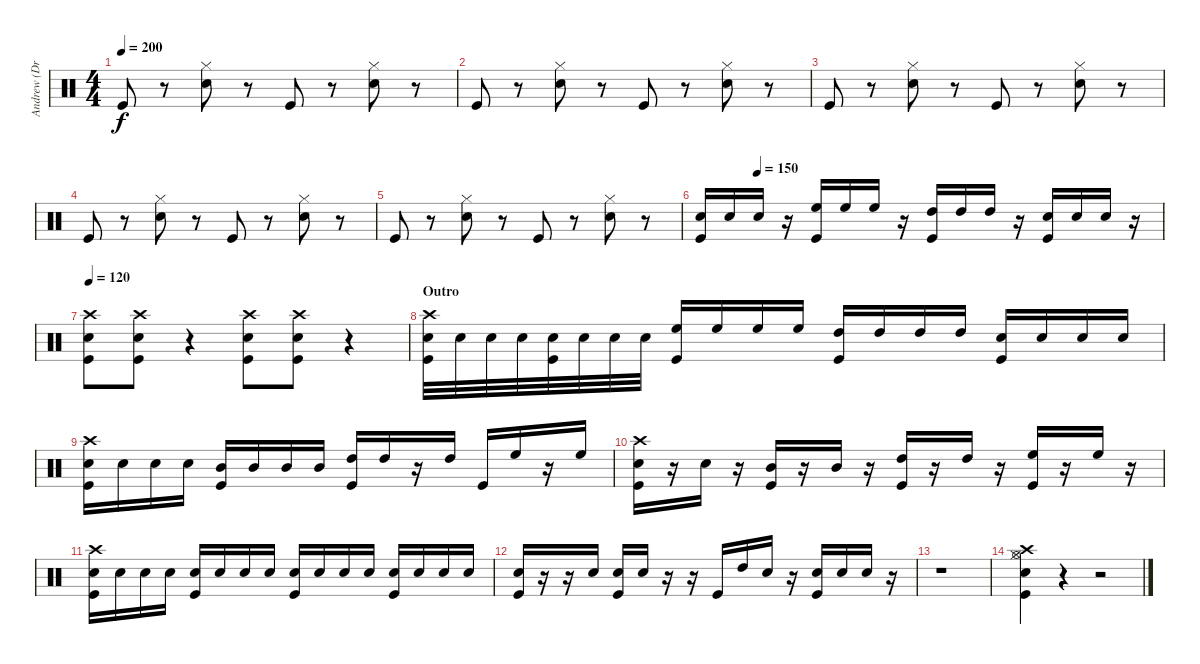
\track ("Andrew (Drums)" "Andrew (Dr") {instrument percussion}
\staff {score}
\articulation defaults
\ts (4 4)
\tempo 200
\clef neutral
\ks c "Kick (hit)".8{dy f}
r.8 ("Snare (hit) 2" "Hi-Hat (closed)").8 r.8 "Kick (hit)".8 r.8 ("Snare (hit) 2" "Hi-Hat (closed)").8 r.8 |
"Kick (hit)".8 r.8 ("Snare (hit) 2" "Hi-Hat (closed)").8 r.8 "Kick (hit)".8 r.8 ("Snare (hit) 2" "Hi-Hat (closed)").8 r.8 |
"Kick (hit)".8 r.8 ("Snare (hit) 2" "Hi-Hat (closed)").8 r.8 "Kick (hit)".8 r.8 ("Snare (hit) 2" "Hi-Hat (closed)").8 r.8 |
"Kick (hit)".8 r.8 ("Snare (hit) 2" "Hi-Hat (closed)").8 r.8 "Kick (hit)".8 r.8 ("Snare (hit) 2" "Hi-Hat (closed)").8 r.8 |
"Kick (hit)".8 r.8 ("Snare (hit) 2" "Hi-Hat (closed)").8 r.8 "Kick (hit)".8 r.8 ("Snare (hit) 2" "Hi-Hat (closed)").8 r.8 |
\tempo (150 0.125)
("Kick (hit)" "Snare (hit) 2").16 "Snare (hit) 2".16 "Snare (hit) 2".16 r.16 ("Kick (hit)" "High Floor Tom (hit)").16 "High Floor Tom (hit)".16 "High Floor Tom (hit)".16 r.16 ("Kick (hit)" "High Tom (hit)").16 "High Tom (hit)".16 "High Tom (hit)".16 r.16 ("Kick (hit)" "Snare (hit) 2").16 "Snare (hit) 2".16 "Snare (hit) 2".16 r.16 |
\tempo 120
("Kick (hit)" "Snare (hit) 2" "Crash high (hit)").8 ("Kick (hit)" "Snare (hit) 2" "Crash high (hit)").8 r.4 ("Kick (hit)" "Snare (hit) 2" "Crash high (hit)").8 ("Kick (hit)" "Snare (hit) 2" "Crash high (hit)").8 r.4 |
\section ("" "Outro")
("Kick (hit)" "Snare (hit) 2" "Crash high (hit)").32 "Snare (hit) 2".32 "Snare (hit) 2".32 "Snare (hit) 2".32 ("Kick (hit)" "Snare (hit) 2").32 "Snare (hit) 2".32 "Snare (hit) 2".32 "Snare (hit) 2".32 ("Kick (hit)" "High Floor Tom (hit)").16 "High Floor Tom (hit)".16 "High Floor Tom (hit)".16 "High Floor Tom (hit)".16 ("Kick (hit)" "High Tom (hit)").16 "High Tom (hit)".16 "High Tom (hit)".16 "High Tom (hit)".16 ("Kick (hit)" "Snare (hit) 2").16 "Snare (hit) 2".16 "Snare (hit) 2".16 "Snare (hit) 2".16 |
("Kick (hit)" "Snare (hit) 2" "Crash high (hit)").16 "Snare (hit) 2".16 "Snare (hit) 2".16 "Snare (hit) 2".16 ("Kick (hit)" "Mid Tom (hit)").16 "Mid Tom (hit)".16 "Mid Tom (hit)".16 "Mid Tom (hit)".16 ("Kick (hit)" "High Tom (hit)").16 "High Tom (hit)".16 r.16 "High Tom (hit)".16 "Kick (hit)".16 "High Floor Tom (hit)".16 r.16 "High Floor Tom (hit)".16 |
("Kick (hit)" "Snare (hit) 2" "Crash high (hit)").16 r.16 "Snare (hit) 2".16 r.16 ("Kick (hit)" "Mid Tom (hit)").16 r.16 "Mid Tom (hit)".16 r.16 ("Kick (hit)" "High Tom (hit)").16 r.16 "High Tom (hit)".16 r.16 ("Kick (hit)" "High Floor Tom (hit)").16 r.16 "High Floor Tom (hit)".16 r.16 |
("Kick (hit)" "Snare (hit) 2" "Crash high (hit)").16 "Snare (hit) 2".16 "Snare (hit) 2".16 "Snare (hit) 2".16 ("Kick (hit)" "Snare (hit) 2").16 "Snare (hit) 2".16 "Snare (hit) 2".16 "Snare (hit) 2".16 ("Kick (hit)" "Snare (hit) 2").16 "Snare (hit) 2".16 "Snare (hit) 2".16 "Snare (hit) 2".16 ("Kick (hit)" "Snare (hit) 2").16 "Snare (hit) 2".16 "Snare (hit) 2".16 "Snare (hit) 2".16 |
("Kick (hit)" "Snare (hit) 2").16 r.16 r.16 "Snare (hit) 2".16 ("Kick (hit)" "Snare (hit) 2").16 "Snare (hit) 2".16 r.16 r.16 "Kick (hit)".16 "High Tom (hit)".16 "Snare (hit) 2".16 r.16 ("Kick (hit)" "Snare (hit) 2").16 "Snare (hit) 2".16 "Snare (hit) 2".16 r.16 |
r.1 |
("Kick (hit)" "Snare (hit) 2" "Crash high (hit)" "Hi-Hat (open)" "Hi-Hat (closed)").4 r.4 r.2
